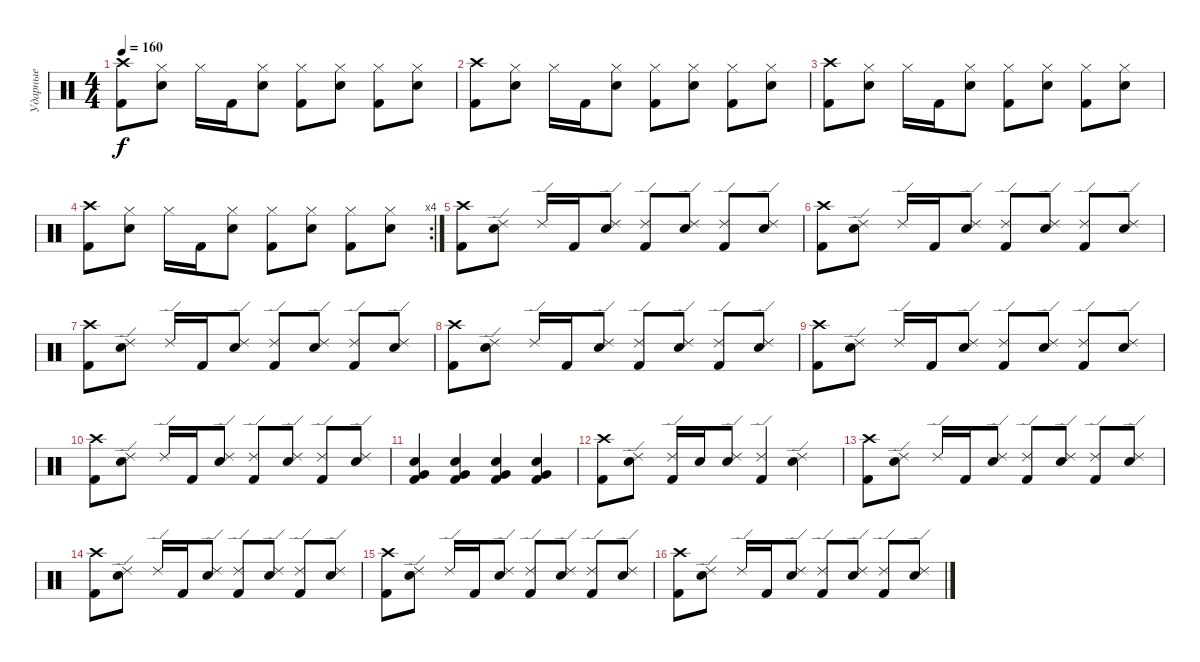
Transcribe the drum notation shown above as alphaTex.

\track ("Ударные" "Ударные") {instrument percussion}
\staff {score}
\articulation defaults
\ts (4 4)
\tempo 160
\clef neutral
\ks c
("Kick (hit) 2" "Crash high (hit)").8{dy f} ("Electric Snare (hit)" "Hi-Hat (closed)").8 "Hi-Hat (closed)".16 "Kick (hit) 2".16 ("Electric Snare (hit)" "Hi-Hat (closed)").8 ("Kick (hit) 2" "Hi-Hat (closed)").8 ("Electric Snare (hit)" "Hi-Hat (closed)").8 ("Kick (hit) 2" "Hi-Hat (closed)").8 ("Electric Snare (hit)" "Hi-Hat (closed)").8 |
("Kick (hit) 2" "Crash high (hit)").8 ("Electric Snare (hit)" "Hi-Hat (closed)").8 "Hi-Hat (closed)".16 "Kick (hit) 2".16 ("Electric Snare (hit)" "Hi-Hat (closed)").8 ("Kick (hit) 2" "Hi-Hat (closed)").8 ("Electric Snare (hit)" "Hi-Hat (closed)").8 ("Kick (hit) 2" "Hi-Hat (closed)").8 ("Electric Snare (hit)" "Hi-Hat (closed)").8 |
("Kick (hit) 2" "Crash high (hit)").8 ("Electric Snare (hit)" "Hi-Hat (closed)").8 "Hi-Hat (closed)".16 "Kick (hit) 2".16 ("Electric Snare (hit)" "Hi-Hat (closed)").8 ("Kick (hit) 2" "Hi-Hat (closed)").8 ("Electric Snare (hit)" "Hi-Hat (closed)").8 ("Kick (hit) 2" "Hi-Hat (closed)").8 ("Electric Snare (hit)" "Hi-Hat (closed)").8 |
\rc 4
("Kick (hit) 2" "Crash high (hit)").8 ("Electric Snare (hit)" "Hi-Hat (closed)").8 "Hi-Hat (closed)".16 "Kick (hit) 2".16 ("Electric Snare (hit)" "Hi-Hat (closed)").8 ("Kick (hit) 2" "Hi-Hat (closed)").8 ("Electric Snare (hit)" "Hi-Hat (closed)").8 ("Kick (hit) 2" "Hi-Hat (closed)").8 ("Electric Snare (hit)" "Hi-Hat (closed)").8 |
("Kick (hit) 2" "Crash high (hit)").8 ("Electric Snare (hit)" "Ride (edge) 2").8 "Ride (edge) 2".16 "Kick (hit) 2".16 ("Electric Snare (hit)" "Ride (edge) 2").8 ("Kick (hit) 2" "Ride (edge) 2").8 ("Electric Snare (hit)" "Ride (edge) 2").8 ("Kick (hit) 2" "Ride (edge) 2").8 ("Electric Snare (hit)" "Ride (edge) 2").8 |
("Kick (hit) 2" "Crash high (hit)").8 ("Electric Snare (hit)" "Ride (edge) 2").8 "Ride (edge) 2".16 "Kick (hit) 2".16 ("Electric Snare (hit)" "Ride (edge) 2").8 ("Kick (hit) 2" "Ride (edge) 2").8 ("Electric Snare (hit)" "Ride (edge) 2").8 ("Kick (hit) 2" "Ride (edge) 2").8 ("Electric Snare (hit)" "Ride (edge) 2").8 |
("Kick (hit) 2" "Crash high (hit)").8 ("Electric Snare (hit)" "Ride (edge) 2").8 "Ride (edge) 2".16 "Kick (hit) 2".16 ("Electric Snare (hit)" "Ride (edge) 2").8 ("Kick (hit) 2" "Ride (edge) 2").8 ("Electric Snare (hit)" "Ride (edge) 2").8 ("Kick (hit) 2" "Ride (edge) 2").8 ("Electric Snare (hit)" "Ride (edge) 2").8 |
("Kick (hit) 2" "Crash high (hit)").8 ("Electric Snare (hit)" "Ride (edge) 2").8 "Ride (edge) 2".16 "Kick (hit) 2".16 ("Electric Snare (hit)" "Ride (edge) 2").8 ("Kick (hit) 2" "Ride (edge) 2").8 ("Electric Snare (hit)" "Ride (edge) 2").8 ("Kick (hit) 2" "Ride (edge) 2").8 ("Electric Snare (hit)" "Ride (edge) 2").8 |
("Kick (hit) 2" "Crash high (hit)").8 ("Electric Snare (hit)" "Ride (edge) 2").8 "Ride (edge) 2".16 "Kick (hit) 2".16 ("Electric Snare (hit)" "Ride (edge) 2").8 ("Kick (hit) 2" "Ride (edge) 2").8 ("Electric Snare (hit)" "Ride (edge) 2").8 ("Kick (hit) 2" "Ride (edge) 2").8 ("Electric Snare (hit)" "Ride (edge) 2").8 |
("Kick (hit) 2" "Crash high (hit)").8 ("Electric Snare (hit)" "Ride (edge) 2").8 "Ride (edge) 2".16 "Kick (hit) 2".16 ("Electric Snare (hit)" "Ride (edge) 2").8 ("Kick (hit) 2" "Ride (edge) 2").8 ("Electric Snare (hit)" "Ride (edge) 2").8 ("Kick (hit) 2" "Ride (edge) 2").8 ("Electric Snare (hit)" "Ride (edge) 2").8 |
("Kick (hit) 2" "Electric Snare (hit)" "Very Low Tom (hit)").4 ("Kick (hit) 2" "Electric Snare (hit)" "Very Low Tom (hit)").4 ("Kick (hit) 2" "Electric Snare (hit)" "Very Low Tom (hit)").4 ("Kick (hit) 2" "Electric Snare (hit)" "Very Low Tom (hit)").4 |
("Kick (hit) 2" "Crash high (hit)").8 ("Electric Snare (hit)" "Ride (edge) 2").8 ("Kick (hit) 2" "Ride (edge) 2").16 "Electric Snare (hit)".16 ("Electric Snare (hit)" "Ride (edge) 2").8 ("Kick (hit) 2" "Ride (edge) 2").4 ("Electric Snare (hit)" "Ride (edge) 2").4 |
("Kick (hit) 2" "Crash high (hit)").8 ("Electric Snare (hit)" "Ride (edge) 2").8 "Ride (edge) 2".16 "Kick (hit) 2".16 ("Electric Snare (hit)" "Ride (edge) 2").8 ("Kick (hit) 2" "Ride (edge) 2").8 ("Electric Snare (hit)" "Ride (edge) 2").8 ("Kick (hit) 2" "Ride (edge) 2").8 ("Electric Snare (hit)" "Ride (edge) 2").8 |
("Kick (hit) 2" "Crash high (hit)").8 ("Electric Snare (hit)" "Ride (edge) 2").8 "Ride (edge) 2".16 "Kick (hit) 2".16 ("Electric Snare (hit)" "Ride (edge) 2").8 ("Kick (hit) 2" "Ride (edge) 2").8 ("Electric Snare (hit)" "Ride (edge) 2").8 ("Kick (hit) 2" "Ride (edge) 2").8 ("Electric Snare (hit)" "Ride (edge) 2").8 |
("Kick (hit) 2" "Crash high (hit)").8 ("Electric Snare (hit)" "Ride (edge) 2").8 "Ride (edge) 2".16 "Kick (hit) 2".16 ("Electric Snare (hit)" "Ride (edge) 2").8 ("Kick (hit) 2" "Ride (edge) 2").8 ("Electric Snare (hit)" "Ride (edge) 2").8 ("Kick (hit) 2" "Ride (edge) 2").8 ("Electric Snare (hit)" "Ride (edge) 2").8 |
("Kick (hit) 2" "Crash high (hit)").8 ("Electric Snare (hit)" "Ride (edge) 2").8 "Ride (edge) 2".16 "Kick (hit) 2".16 ("Electric Snare (hit)" "Ride (edge) 2").8 ("Kick (hit) 2" "Ride (edge) 2").8 ("Electric Snare (hit)" "Ride (edge) 2").8 ("Kick (hit) 2" "Ride (edge) 2").8 ("Electric Snare (hit)" "Ride (edge) 2").8
